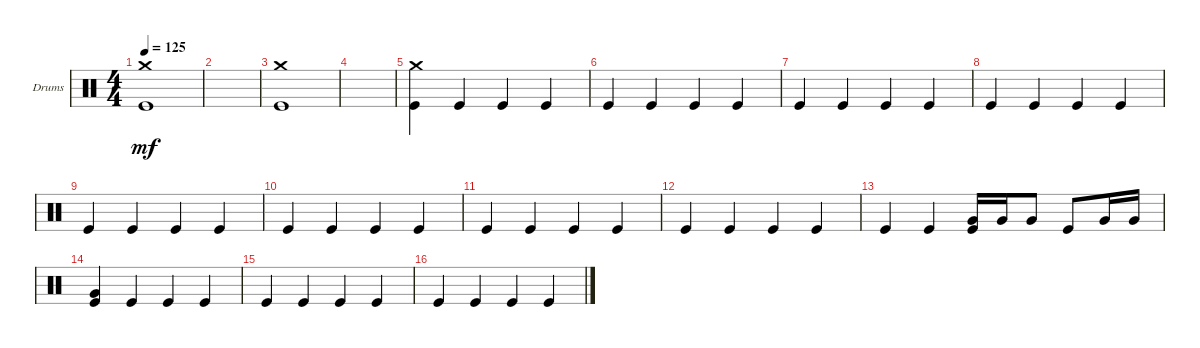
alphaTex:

\defaultSystemsLayout 4
\bracketExtendMode groupsimilarinstruments
\firstSystemTrackNameOrientation horizontal
\otherSystemsTrackNameOrientation horizontal
\track ("Drumkit" "Drums") {instrument percussion}
\staff {score}
\articulation defaults
\ts (4 4)
\tempo 125
\clef neutral
\scale
0.333333
\ks c
("Kick (hit)" "Crash medium (hit)").1{dy mf} |
\scale
0.333333 |
\scale
0.333333 ("Crash medium (hit)" "Kick (hit)").1 |
\scale
0.333333 |
\scale
0.333333 ("Kick (hit)" "Crash medium (hit)").4 "Kick (hit)".4 "Kick (hit)".4 "Kick (hit)".4 |
\scale
0.333333 "Kick (hit)".4 "Kick (hit)".4 "Kick (hit)".4 "Kick (hit)".4 |
\scale
0.333333 "Kick (hit)".4 "Kick (hit)".4 "Kick (hit)".4 "Kick (hit)".4 |
\scale
0.333333 "Kick (hit)".4 "Kick (hit)".4 "Kick (hit)".4 "Kick (hit)".4 |
\scale
0.333333 "Kick (hit)".4 "Kick (hit)".4 "Kick (hit)".4 "Kick (hit)".4 |
\scale
0.333333 "Kick (hit)".4 "Kick (hit)".4 "Kick (hit)".4 "Kick (hit)".4 |
\scale
0.333333 "Kick (hit)".4 "Kick (hit)".4 "Kick (hit)".4 "Kick (hit)".4 |
\scale
0.333333 "Kick (hit)".4 "Kick (hit)".4 "Kick (hit)".4 "Kick (hit)".4 |
\scale
0.333333 "Kick (hit)".4 "Kick (hit)".4 ("Kick (hit)" "Very Low Tom (hit)").16 "Very Low Tom (hit)".16 "Very Low Tom (hit)".8 "Kick (hit)".8 "Very Low Tom (hit)".16 "Very Low Tom (hit)".16 |
\scale
0.333333 ("Kick (hit)" "Very Low Tom (hit)").4 "Kick (hit)".4 "Kick (hit)".4 "Kick (hit)".4 |
\scale
0.333333 "Kick (hit)".4 "Kick (hit)".4 "Kick (hit)".4 "Kick (hit)".4 |
\scale
0.333333 "Kick (hit)".4 "Kick (hit)".4 "Kick (hit)".4 "Kick (hit)".4
